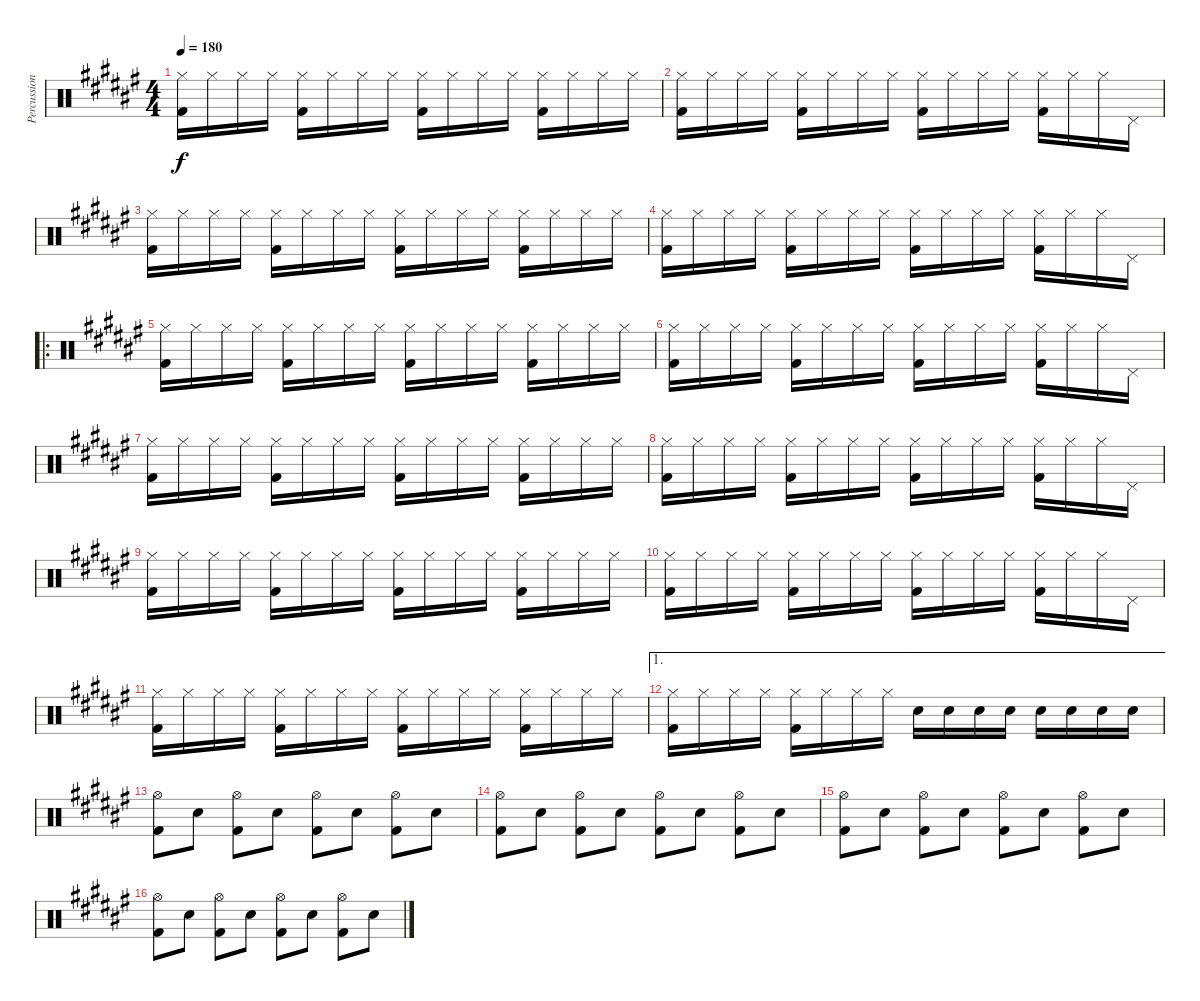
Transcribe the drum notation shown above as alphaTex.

\track ("Percussion" "Percussion") {instrument percussion}
\staff {score}
\articulation defaults
\ts (4 4)
\tempo 180
\clef neutral
\ks f#
("Hi-Hat (closed)" "Kick (hit) 2").16{dy f} "Hi-Hat (closed)".16 "Hi-Hat (closed)".16 "Hi-Hat (closed)".16 ("Hi-Hat (closed)" "Kick (hit) 2").16 "Hi-Hat (closed)".16 "Hi-Hat (closed)".16 "Hi-Hat (closed)".16 ("Hi-Hat (closed)" "Kick (hit) 2").16 "Hi-Hat (closed)".16 "Hi-Hat (closed)".16 "Hi-Hat (closed)".16 ("Hi-Hat (closed)" "Kick (hit) 2").16 "Hi-Hat (closed)".16 "Hi-Hat (closed)".16 "Hi-Hat (closed)".16 |
("Hi-Hat (closed)" "Kick (hit) 2").16 "Hi-Hat (closed)".16 "Hi-Hat (closed)".16 "Hi-Hat (closed)".16 ("Hi-Hat (closed)" "Kick (hit) 2").16 "Hi-Hat (closed)".16 "Hi-Hat (closed)".16 "Hi-Hat (closed)".16 ("Hi-Hat (closed)" "Kick (hit) 2").16 "Hi-Hat (closed)".16 "Hi-Hat (closed)".16 "Hi-Hat (closed)".16 ("Hi-Hat (closed)" "Kick (hit) 2").16 "Hi-Hat (closed)".16 "Hi-Hat (closed)".16 "Pedal Hi-Hat (hit)".16 |
("Hi-Hat (closed)" "Kick (hit) 2").16 "Hi-Hat (closed)".16 "Hi-Hat (closed)".16 "Hi-Hat (closed)".16 ("Hi-Hat (closed)" "Kick (hit) 2").16 "Hi-Hat (closed)".16 "Hi-Hat (closed)".16 "Hi-Hat (closed)".16 ("Hi-Hat (closed)" "Kick (hit) 2").16 "Hi-Hat (closed)".16 "Hi-Hat (closed)".16 "Hi-Hat (closed)".16 ("Hi-Hat (closed)" "Kick (hit) 2").16 "Hi-Hat (closed)".16 "Hi-Hat (closed)".16 "Hi-Hat (closed)".16 |
("Hi-Hat (closed)" "Kick (hit) 2").16 "Hi-Hat (closed)".16 "Hi-Hat (closed)".16 "Hi-Hat (closed)".16 ("Hi-Hat (closed)" "Kick (hit) 2").16 "Hi-Hat (closed)".16 "Hi-Hat (closed)".16 "Hi-Hat (closed)".16 ("Hi-Hat (closed)" "Kick (hit) 2").16 "Hi-Hat (closed)".16 "Hi-Hat (closed)".16 "Hi-Hat (closed)".16 ("Hi-Hat (closed)" "Kick (hit) 2").16 "Hi-Hat (closed)".16 "Hi-Hat (closed)".16 "Pedal Hi-Hat (hit)".16 |
\ro
("Hi-Hat (closed)" "Kick (hit) 2").16 "Hi-Hat (closed)".16 "Hi-Hat (closed)".16 "Hi-Hat (closed)".16 ("Hi-Hat (closed)" "Kick (hit) 2").16 "Hi-Hat (closed)".16 "Hi-Hat (closed)".16 "Hi-Hat (closed)".16 ("Hi-Hat (closed)" "Kick (hit) 2").16 "Hi-Hat (closed)".16 "Hi-Hat (closed)".16 "Hi-Hat (closed)".16 ("Hi-Hat (closed)" "Kick (hit) 2").16 "Hi-Hat (closed)".16 "Hi-Hat (closed)".16 "Hi-Hat (closed)".16 |
("Hi-Hat (closed)" "Kick (hit) 2").16 "Hi-Hat (closed)".16 "Hi-Hat (closed)".16 "Hi-Hat (closed)".16 ("Hi-Hat (closed)" "Kick (hit) 2").16 "Hi-Hat (closed)".16 "Hi-Hat (closed)".16 "Hi-Hat (closed)".16 ("Hi-Hat (closed)" "Kick (hit) 2").16 "Hi-Hat (closed)".16 "Hi-Hat (closed)".16 "Hi-Hat (closed)".16 ("Hi-Hat (closed)" "Kick (hit) 2").16 "Hi-Hat (closed)".16 "Hi-Hat (closed)".16 "Pedal Hi-Hat (hit)".16 |
("Hi-Hat (closed)" "Kick (hit) 2").16 "Hi-Hat (closed)".16 "Hi-Hat (closed)".16 "Hi-Hat (closed)".16 ("Hi-Hat (closed)" "Kick (hit) 2").16 "Hi-Hat (closed)".16 "Hi-Hat (closed)".16 "Hi-Hat (closed)".16 ("Hi-Hat (closed)" "Kick (hit) 2").16 "Hi-Hat (closed)".16 "Hi-Hat (closed)".16 "Hi-Hat (closed)".16 ("Hi-Hat (closed)" "Kick (hit) 2").16 "Hi-Hat (closed)".16 "Hi-Hat (closed)".16 "Hi-Hat (closed)".16 |
("Hi-Hat (closed)" "Kick (hit) 2").16 "Hi-Hat (closed)".16 "Hi-Hat (closed)".16 "Hi-Hat (closed)".16 ("Hi-Hat (closed)" "Kick (hit) 2").16 "Hi-Hat (closed)".16 "Hi-Hat (closed)".16 "Hi-Hat (closed)".16 ("Hi-Hat (closed)" "Kick (hit) 2").16 "Hi-Hat (closed)".16 "Hi-Hat (closed)".16 "Hi-Hat (closed)".16 ("Hi-Hat (closed)" "Kick (hit) 2").16 "Hi-Hat (closed)".16 "Hi-Hat (closed)".16 "Pedal Hi-Hat (hit)".16 |
("Hi-Hat (closed)" "Kick (hit) 2").16 "Hi-Hat (closed)".16 "Hi-Hat (closed)".16 "Hi-Hat (closed)".16 ("Hi-Hat (closed)" "Kick (hit) 2").16 "Hi-Hat (closed)".16 "Hi-Hat (closed)".16 "Hi-Hat (closed)".16 ("Hi-Hat (closed)" "Kick (hit) 2").16 "Hi-Hat (closed)".16 "Hi-Hat (closed)".16 "Hi-Hat (closed)".16 ("Hi-Hat (closed)" "Kick (hit) 2").16 "Hi-Hat (closed)".16 "Hi-Hat (closed)".16 "Hi-Hat (closed)".16 |
("Hi-Hat (closed)" "Kick (hit) 2").16 "Hi-Hat (closed)".16 "Hi-Hat (closed)".16 "Hi-Hat (closed)".16 ("Hi-Hat (closed)" "Kick (hit) 2").16 "Hi-Hat (closed)".16 "Hi-Hat (closed)".16 "Hi-Hat (closed)".16 ("Hi-Hat (closed)" "Kick (hit) 2").16 "Hi-Hat (closed)".16 "Hi-Hat (closed)".16 "Hi-Hat (closed)".16 ("Hi-Hat (closed)" "Kick (hit) 2").16 "Hi-Hat (closed)".16 "Hi-Hat (closed)".16 "Pedal Hi-Hat (hit)".16 |
("Hi-Hat (closed)" "Kick (hit) 2").16 "Hi-Hat (closed)".16 "Hi-Hat (closed)".16 "Hi-Hat (closed)".16 ("Hi-Hat (closed)" "Kick (hit) 2").16 "Hi-Hat (closed)".16 "Hi-Hat (closed)".16 "Hi-Hat (closed)".16 ("Hi-Hat (closed)" "Kick (hit) 2").16 "Hi-Hat (closed)".16 "Hi-Hat (closed)".16 "Hi-Hat (closed)".16 ("Hi-Hat (closed)" "Kick (hit) 2").16 "Hi-Hat (closed)".16 "Hi-Hat (closed)".16 "Hi-Hat (closed)".16 |
\ae 1
("Hi-Hat (closed)" "Kick (hit) 2").16 "Hi-Hat (closed)".16 "Hi-Hat (closed)".16 "Hi-Hat (closed)".16 ("Hi-Hat (closed)" "Kick (hit) 2").16 "Hi-Hat (closed)".16 "Hi-Hat (closed)".16 "Hi-Hat (closed)".16 "Snare (hit) 2".16 "Snare (hit) 2".16 "Snare (hit) 2".16 "Snare (hit) 2".16 "Snare (hit) 2".16 "Snare (hit) 2".16 "Snare (hit) 2".16 "Snare (hit) 2".16 |
("Hi-Hat (open)" "Kick (hit) 2").8 "Snare (hit) 2".8 ("Hi-Hat (open)" "Kick (hit) 2").8 "Snare (hit) 2".8 ("Hi-Hat (open)" "Kick (hit) 2").8 "Snare (hit) 2".8 ("Hi-Hat (open)" "Kick (hit) 2").8 "Snare (hit) 2".8 |
("Hi-Hat (open)" "Kick (hit) 2").8 "Snare (hit) 2".8 ("Hi-Hat (open)" "Kick (hit) 2").8 "Snare (hit) 2".8 ("Hi-Hat (open)" "Kick (hit) 2").8 "Snare (hit) 2".8 ("Hi-Hat (open)" "Kick (hit) 2").8 "Snare (hit) 2".8 |
("Hi-Hat (open)" "Kick (hit) 2").8 "Snare (hit) 2".8 ("Hi-Hat (open)" "Kick (hit) 2").8 "Snare (hit) 2".8 ("Hi-Hat (open)" "Kick (hit) 2").8 "Snare (hit) 2".8 ("Hi-Hat (open)" "Kick (hit) 2").8 "Snare (hit) 2".8 |
("Hi-Hat (open)" "Kick (hit) 2").8 "Snare (hit) 2".8 ("Hi-Hat (open)" "Kick (hit) 2").8 "Snare (hit) 2".8 ("Hi-Hat (open)" "Kick (hit) 2").8 "Snare (hit) 2".8 ("Hi-Hat (open)" "Kick (hit) 2").8 "Snare (hit) 2".8
